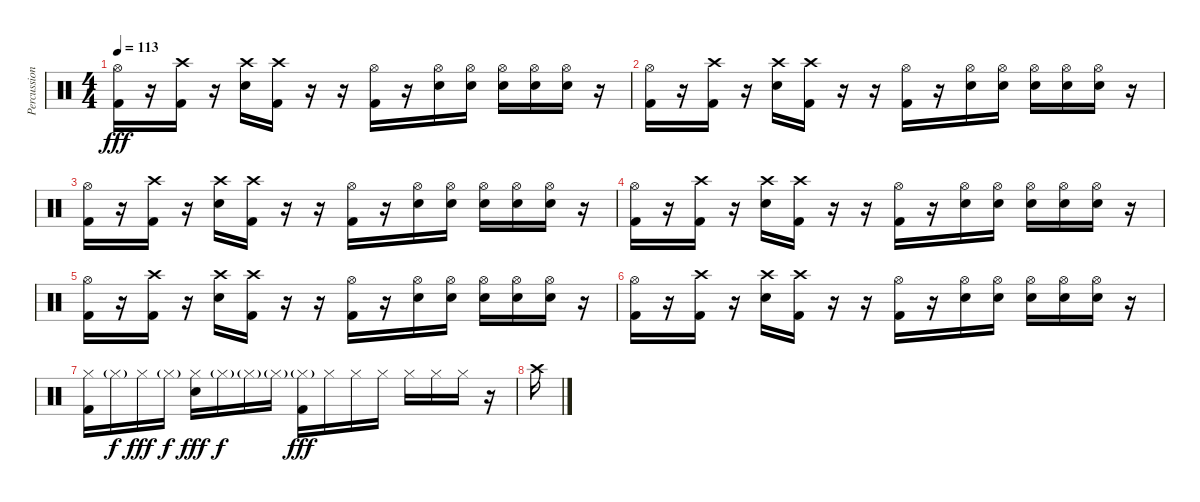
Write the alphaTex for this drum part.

\track ("Percussion" "Percussion") {instrument percussion}
\staff {score}
\articulation defaults
\ts (4 4)
\tempo 113
\clef neutral
\ks c
("Hi-Hat (open)" "Kick (hit) 2").16{dy fff} r.16 ("Crash high (hit)" "Kick (hit) 2").16 r.16 ("Crash high (hit)" "Electric Snare (hit)").16 ("Crash high (hit)" "Kick (hit) 2").16 r.16 r.16 ("Hi-Hat (open)" "Kick (hit) 2").16 r.16 ("Hi-Hat (open)" "Electric Snare (hit)").16 ("Hi-Hat (open)" "Electric Snare (hit)").16 ("Hi-Hat (open)" "Electric Snare (hit)").16 ("Hi-Hat (open)" "Electric Snare (hit)").16 ("Hi-Hat (open)" "Electric Snare (hit)").16 r.16 |
("Hi-Hat (open)" "Kick (hit) 2").16 r.16 ("Crash high (hit)" "Kick (hit) 2").16 r.16 ("Crash high (hit)" "Electric Snare (hit)").16 ("Crash high (hit)" "Kick (hit) 2").16 r.16 r.16 ("Hi-Hat (open)" "Kick (hit) 2").16 r.16 ("Hi-Hat (open)" "Electric Snare (hit)").16 ("Hi-Hat (open)" "Electric Snare (hit)").16 ("Hi-Hat (open)" "Electric Snare (hit)").16 ("Hi-Hat (open)" "Electric Snare (hit)").16 ("Hi-Hat (open)" "Electric Snare (hit)").16 r.16 |
("Hi-Hat (open)" "Kick (hit) 2").16 r.16 ("Crash high (hit)" "Kick (hit) 2").16 r.16 ("Crash high (hit)" "Electric Snare (hit)").16 ("Crash high (hit)" "Kick (hit) 2").16 r.16 r.16 ("Hi-Hat (open)" "Kick (hit) 2").16 r.16 ("Hi-Hat (open)" "Electric Snare (hit)").16 ("Hi-Hat (open)" "Electric Snare (hit)").16 ("Hi-Hat (open)" "Electric Snare (hit)").16 ("Hi-Hat (open)" "Electric Snare (hit)").16 ("Hi-Hat (open)" "Electric Snare (hit)").16 r.16 |
("Hi-Hat (open)" "Kick (hit) 2").16 r.16 ("Crash high (hit)" "Kick (hit) 2").16 r.16 ("Crash high (hit)" "Electric Snare (hit)").16 ("Crash high (hit)" "Kick (hit) 2").16 r.16 r.16 ("Hi-Hat (open)" "Kick (hit) 2").16 r.16 ("Hi-Hat (open)" "Electric Snare (hit)").16 ("Hi-Hat (open)" "Electric Snare (hit)").16 ("Hi-Hat (open)" "Electric Snare (hit)").16 ("Hi-Hat (open)" "Electric Snare (hit)").16 ("Hi-Hat (open)" "Electric Snare (hit)").16 r.16 |
("Hi-Hat (open)" "Kick (hit) 2").16 r.16 ("Crash high (hit)" "Kick (hit) 2").16 r.16 ("Crash high (hit)" "Electric Snare (hit)").16 ("Crash high (hit)" "Kick (hit) 2").16 r.16 r.16 ("Hi-Hat (open)" "Kick (hit) 2").16 r.16 ("Hi-Hat (open)" "Electric Snare (hit)").16 ("Hi-Hat (open)" "Electric Snare (hit)").16 ("Hi-Hat (open)" "Electric Snare (hit)").16 ("Hi-Hat (open)" "Electric Snare (hit)").16 ("Hi-Hat (open)" "Electric Snare (hit)").16 r.16 |
("Hi-Hat (open)" "Kick (hit) 2").16 r.16 ("Crash high (hit)" "Kick (hit) 2").16 r.16 ("Crash high (hit)" "Electric Snare (hit)").16 ("Crash high (hit)" "Kick (hit) 2").16 r.16 r.16 ("Hi-Hat (open)" "Kick (hit) 2").16 r.16 ("Hi-Hat (open)" "Electric Snare (hit)").16 ("Hi-Hat (open)" "Electric Snare (hit)").16 ("Hi-Hat (open)" "Electric Snare (hit)").16 ("Hi-Hat (open)" "Electric Snare (hit)").16 ("Hi-Hat (open)" "Electric Snare (hit)").16 r.16 |
("Hi-Hat (closed)" "Kick (hit) 2").16 "Hi-Hat (closed)"{g}.16{dy f} "Hi-Hat (closed)".16{dy fff} "Hi-Hat (closed)"{g}.16{dy f} ("Hi-Hat (closed)" "Electric Snare (hit)").16{dy fff} "Hi-Hat (closed)"{g}.16{dy f} "Hi-Hat (closed)"{g}.16 "Hi-Hat (closed)"{g}.16 ("Hi-Hat (closed)"{g} "Kick (hit) 2").16{dy fff} "Hi-Hat (closed)".16 "Hi-Hat (closed)".16 "Hi-Hat (closed)".16 "Hi-Hat (closed)".16 "Hi-Hat (closed)".16 "Hi-Hat (closed)".16 r.16 |
"Crash high (hit)".16
